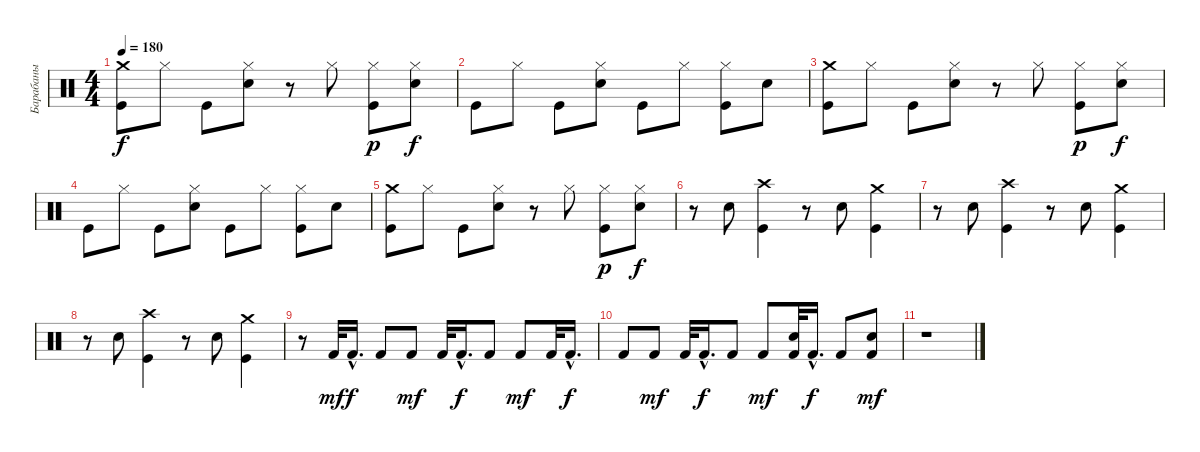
\track ("Барабаны" "Барабаны") {instrument percussion}
\staff {score}
\articulation defaults
\ts (4 4)
\tempo 180
\clef neutral
\ks c
("Kick (hit)" "Crash medium (hit)").8{dy f} "Hi-Hat (closed)".8 "Kick (hit)".8 ("Electric Snare (hit)" "Hi-Hat (closed)").8 r.8 "Hi-Hat (closed)".8 ("Kick (hit)" "Hi-Hat (closed)").8{dy p} ("Hi-Hat (closed)" "Electric Snare (hit)").8{dy f} |
"Kick (hit)".8 "Hi-Hat (closed)".8 "Kick (hit)".8 ("Electric Snare (hit)" "Hi-Hat (closed)").8 "Kick (hit)".8 "Hi-Hat (closed)".8 ("Hi-Hat (closed)" "Kick (hit)").8 "Electric Snare (hit)".8 |
("Kick (hit)" "Crash medium (hit)").8 "Hi-Hat (closed)".8 "Kick (hit)".8 ("Hi-Hat (closed)" "Electric Snare (hit)").8 r.8 "Hi-Hat (closed)".8 ("Kick (hit)" "Hi-Hat (closed)").8{dy p} ("Hi-Hat (closed)" "Electric Snare (hit)").8{dy f} |
"Kick (hit)".8 "Hi-Hat (closed)".8 "Kick (hit)".8 ("Hi-Hat (closed)" "Electric Snare (hit)").8 "Kick (hit)".8 "Hi-Hat (closed)".8 ("Kick (hit)" "Hi-Hat (closed)").8 "Electric Snare (hit)".8 |
("Kick (hit)" "Crash medium (hit)").8 "Hi-Hat (closed)".8 "Kick (hit)".8 ("Electric Snare (hit)" "Hi-Hat (closed)").8 r.8 "Hi-Hat (closed)".8 ("Hi-Hat (closed)" "Kick (hit)").8{dy p} ("Electric Snare (hit)" "Hi-Hat (closed)").8{dy f} |
r.8 "Electric Snare (hit)".8 ("Kick (hit)" "Crash high (hit)").4 r.8 "Electric Snare (hit)".8 ("Kick (hit)" "Crash medium (hit)").4 |
r.8 "Electric Snare (hit)".8 ("Kick (hit)" "Crash high (hit)").4 r.8 "Electric Snare (hit)".8 ("Kick (hit)" "Crash medium (hit)").4 |
r.8 "Electric Snare (hit)".8 ("Kick (hit)" "Crash high (hit)").4 r.8 "Electric Snare (hit)".8 ("Kick (hit)" "Crash medium (hit)").4 |
r.8 "Kick (hit) 2".32{dy mf} "Kick (hit) 2"{hac}.16{d dy f} "Kick (hit) 2".8 "Kick (hit) 2".8{dy mf} "Kick (hit) 2".32 "Kick (hit) 2"{hac}.16{d dy f} "Kick (hit) 2".8 "Kick (hit) 2".8{dy mf} "Kick (hit) 2".32 "Kick (hit) 2"{hac}.16{d dy f} |
"Kick (hit) 2".8 "Kick (hit) 2".8{dy mf} "Kick (hit) 2".32 "Kick (hit) 2"{hac}.16{d dy f} "Kick (hit) 2".8 "Kick (hit) 2".8{dy mf} ("Electric Snare (hit)" "Kick (hit) 2").32 "Kick (hit) 2"{hac}.16{d dy f} "Kick (hit) 2".8 ("Electric Snare (hit)" "Kick (hit) 2").8{dy mf} |
r.1
